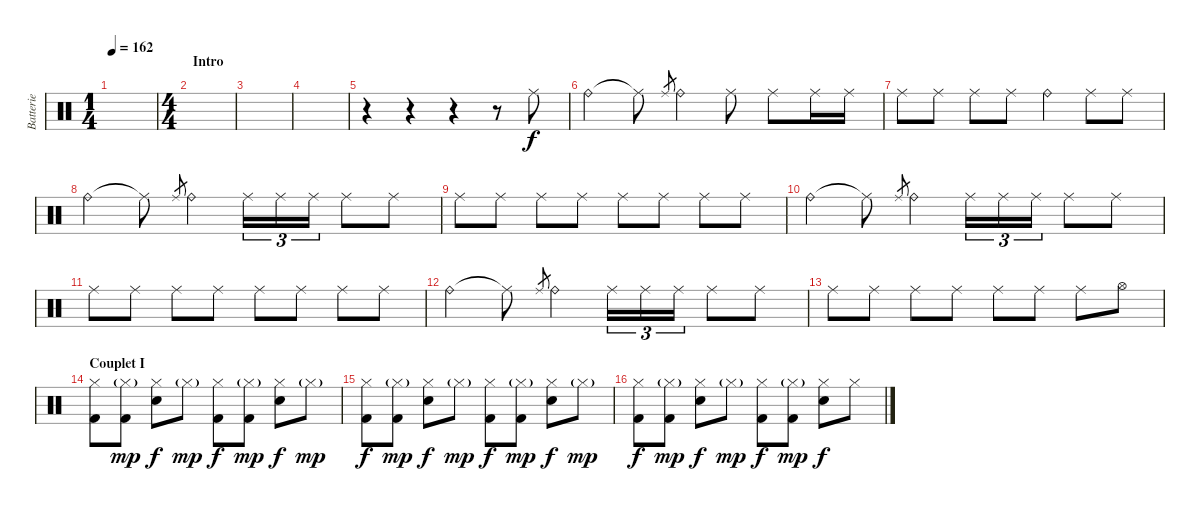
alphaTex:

\track ("Batterie" "Batterie") {instrument percussion}
\staff {score}
\articulation defaults
\ts (1 4)
\tempo 162
\clef neutral
\ks c
|
\ts (4 4)
\section ("" "Intro")
|
|
|
r.4{volume 12} r.4 r.4 r.8 "Ride (middle)".8 |
"Ride (bell)".4 "Ride (middle)"{t}.8 "Ride (middle)".8{gr} "Ride (bell)".4 "Ride (middle)".8 "Ride (middle)".8 "Ride (middle)".16 "Ride (middle)".16 |
"Ride (middle)".8 "Ride (middle)".8 "Ride (middle)".8 "Ride (middle)".8 "Ride (bell)".4 "Ride (middle)".8 "Ride (middle)".8 |
"Ride (bell)".4 "Ride (middle)"{t}.8 "Ride (middle)".8{gr} "Ride (bell)".4 "Ride (middle)".16{tu (3 2)} "Ride (middle)".16{tu (3 2)} "Ride (middle)".16{tu (3 2)} "Ride (middle)".8 "Ride (middle)".8 |
"Ride (middle)".8 "Ride (middle)".8 "Ride (middle)".8 "Ride (middle)".8 "Ride (middle)".8 "Ride (middle)".8 "Ride (middle)".8 "Ride (middle)".8 |
"Ride (bell)".4 "Ride (middle)"{t}.8 "Ride (middle)".8{gr} "Ride (bell)".4 "Ride (middle)".16{tu (3 2)} "Ride (middle)".16{tu (3 2)} "Ride (middle)".16{tu (3 2)} "Ride (middle)".8 "Ride (middle)".8 |
"Ride (middle)".8 "Ride (middle)".8 "Ride (middle)".8 "Ride (middle)".8 "Ride (middle)".8 "Ride (middle)".8 "Ride (middle)".8 "Ride (middle)".8 |
"Ride (bell)".4 "Ride (middle)"{t}.8 "Ride (middle)".8{gr} "Ride (bell)".4 "Ride (middle)".16{tu (3 2)} "Ride (middle)".16{tu (3 2)} "Ride (middle)".16{tu (3 2)} "Ride (middle)".8 "Ride (middle)".8 |
"Ride (middle)".8 "Ride (middle)".8 "Ride (middle)".8 "Ride (middle)".8 "Ride (middle)".8 "Ride (middle)".8 "Ride (middle)".8 "Hi-Hat (open)".8 |
\section ("" "Couplet I")
("Hi-Hat (closed)" "Kick (hit) 2").8{volume 15} ("Hi-Hat (closed)"{g} "Kick (hit) 2").8{dy mp} ("Hi-Hat (closed)" "Electric Snare (hit)").8{dy f} "Hi-Hat (closed)"{g}.8{dy mp} ("Hi-Hat (closed)" "Kick (hit) 2").8{dy f} ("Hi-Hat (closed)"{g} "Kick (hit) 2").8{dy mp} ("Hi-Hat (closed)" "Electric Snare (hit)").8{dy f} "Hi-Hat (closed)"{g}.8{dy mp} |
("Hi-Hat (closed)" "Kick (hit) 2").8{dy f} ("Hi-Hat (closed)"{g} "Kick (hit) 2").8{dy mp} ("Hi-Hat (closed)" "Electric Snare (hit)").8{dy f} "Hi-Hat (closed)"{g}.8{dy mp} ("Hi-Hat (closed)" "Kick (hit) 2").8{dy f} ("Hi-Hat (closed)"{g} "Kick (hit) 2").8{dy mp} ("Hi-Hat (closed)" "Electric Snare (hit)").8{dy f} "Hi-Hat (closed)"{g}.8{dy mp} |
("Hi-Hat (closed)" "Kick (hit) 2").8{dy f} ("Hi-Hat (closed)"{g} "Kick (hit) 2").8{dy mp} ("Hi-Hat (closed)" "Electric Snare (hit)").8{dy f} "Hi-Hat (closed)"{g}.8{dy mp} ("Hi-Hat (closed)" "Kick (hit) 2").8{dy f} ("Hi-Hat (closed)"{g} "Kick (hit) 2").8{dy mp} ("Hi-Hat (closed)" "Electric Snare (hit)").8{dy f} "Hi-Hat (closed)".8
